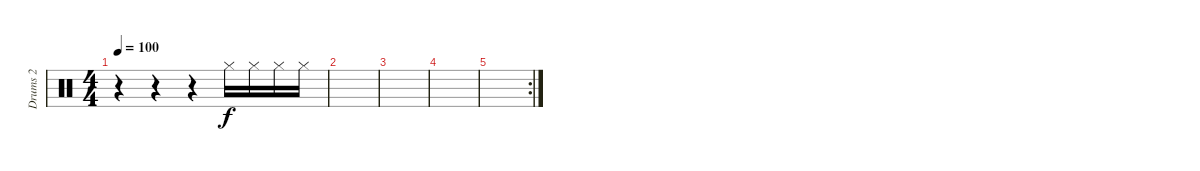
\track ("Drums 2" "Drums 2") {instrument percussion}
\staff {score}
\articulation defaults
\ts (4 4)
\tempo 100
\clef neutral
\ks c
r.4{dy f} r.4 r.4 "Hi-Hat (closed)".16 "Hi-Hat (closed)".16 "Hi-Hat (closed)".16 "Hi-Hat (closed)".16 |
|
|
|
\rc 2
